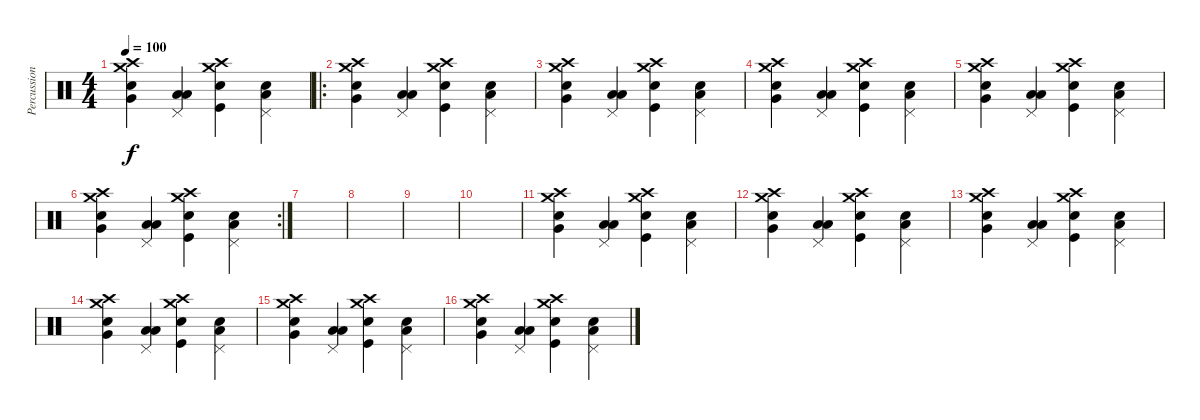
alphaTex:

\track ("Percussion" "Percussion") {instrument percussion}
\staff {score}
\articulation defaults
\ts (4 4)
\tempo 100
\clef neutral
\ks c
("Crash medium (hit)" "Crash high (hit)" "Electric Snare (hit)" "Very Low Tom (hit)").4{dy f} ("Pedal Hi-Hat (hit)" "Low Tom (hit)" "Low Floor Tom (hit)").4 ("Crash medium (hit)" "Crash high (hit)" "Electric Snare (hit)" "Kick (hit)").4 ("Pedal Hi-Hat (hit)" "Low Tom (hit)" "Electric Snare (hit)").4 |
\ro
("Crash medium (hit)" "Crash high (hit)" "Electric Snare (hit)" "Very Low Tom (hit)").4 ("Pedal Hi-Hat (hit)" "Low Tom (hit)" "Low Floor Tom (hit)").4 ("Crash medium (hit)" "Crash high (hit)" "Electric Snare (hit)" "Kick (hit)").4 ("Pedal Hi-Hat (hit)" "Low Tom (hit)" "Electric Snare (hit)").4 |
("Crash medium (hit)" "Crash high (hit)" "Electric Snare (hit)" "Very Low Tom (hit)").4 ("Pedal Hi-Hat (hit)" "Low Tom (hit)" "Low Floor Tom (hit)").4 ("Crash medium (hit)" "Crash high (hit)" "Electric Snare (hit)" "Kick (hit)").4 ("Pedal Hi-Hat (hit)" "Low Tom (hit)" "Electric Snare (hit)").4 |
("Crash medium (hit)" "Crash high (hit)" "Electric Snare (hit)" "Very Low Tom (hit)").4 ("Pedal Hi-Hat (hit)" "Low Tom (hit)" "Low Floor Tom (hit)").4 ("Crash medium (hit)" "Crash high (hit)" "Electric Snare (hit)" "Kick (hit)").4 ("Pedal Hi-Hat (hit)" "Low Tom (hit)" "Electric Snare (hit)").4 |
("Crash medium (hit)" "Crash high (hit)" "Electric Snare (hit)" "Very Low Tom (hit)").4 ("Pedal Hi-Hat (hit)" "Low Tom (hit)" "Low Floor Tom (hit)").4 ("Crash medium (hit)" "Crash high (hit)" "Electric Snare (hit)" "Kick (hit)").4 ("Pedal Hi-Hat (hit)" "Low Tom (hit)" "Electric Snare (hit)").4 |
\rc 2
("Crash medium (hit)" "Crash high (hit)" "Electric Snare (hit)" "Very Low Tom (hit)").4 ("Pedal Hi-Hat (hit)" "Low Tom (hit)" "Low Floor Tom (hit)").4 ("Crash medium (hit)" "Crash high (hit)" "Electric Snare (hit)" "Kick (hit)").4 ("Pedal Hi-Hat (hit)" "Low Tom (hit)" "Electric Snare (hit)").4 |
|
|
|
|
("Crash medium (hit)" "Crash high (hit)" "Electric Snare (hit)" "Very Low Tom (hit)").4 ("Pedal Hi-Hat (hit)" "Low Tom (hit)" "Low Floor Tom (hit)").4 ("Crash medium (hit)" "Crash high (hit)" "Electric Snare (hit)" "Kick (hit)").4 ("Pedal Hi-Hat (hit)" "Low Tom (hit)" "Electric Snare (hit)").4 |
("Crash medium (hit)" "Crash high (hit)" "Electric Snare (hit)" "Very Low Tom (hit)").4 ("Pedal Hi-Hat (hit)" "Low Tom (hit)" "Low Floor Tom (hit)").4 ("Crash medium (hit)" "Crash high (hit)" "Electric Snare (hit)" "Kick (hit)").4 ("Pedal Hi-Hat (hit)" "Low Tom (hit)" "Electric Snare (hit)").4 |
("Crash medium (hit)" "Crash high (hit)" "Electric Snare (hit)" "Very Low Tom (hit)").4 ("Pedal Hi-Hat (hit)" "Low Tom (hit)" "Low Floor Tom (hit)").4 ("Crash medium (hit)" "Crash high (hit)" "Electric Snare (hit)" "Kick (hit)").4 ("Pedal Hi-Hat (hit)" "Low Tom (hit)" "Electric Snare (hit)").4 |
("Crash medium (hit)" "Crash high (hit)" "Electric Snare (hit)" "Very Low Tom (hit)").4 ("Pedal Hi-Hat (hit)" "Low Tom (hit)" "Low Floor Tom (hit)").4 ("Crash medium (hit)" "Crash high (hit)" "Electric Snare (hit)" "Kick (hit)").4 ("Pedal Hi-Hat (hit)" "Low Tom (hit)" "Electric Snare (hit)").4 |
("Crash medium (hit)" "Crash high (hit)" "Electric Snare (hit)" "Very Low Tom (hit)").4 ("Pedal Hi-Hat (hit)" "Low Tom (hit)" "Low Floor Tom (hit)").4 ("Crash medium (hit)" "Crash high (hit)" "Electric Snare (hit)" "Kick (hit)").4 ("Pedal Hi-Hat (hit)" "Low Tom (hit)" "Electric Snare (hit)").4 |
("Crash medium (hit)" "Crash high (hit)" "Electric Snare (hit)" "Very Low Tom (hit)").4 ("Pedal Hi-Hat (hit)" "Low Tom (hit)" "Low Floor Tom (hit)").4 ("Crash medium (hit)" "Crash high (hit)" "Electric Snare (hit)" "Kick (hit)").4 ("Pedal Hi-Hat (hit)" "Low Tom (hit)" "Electric Snare (hit)").4
